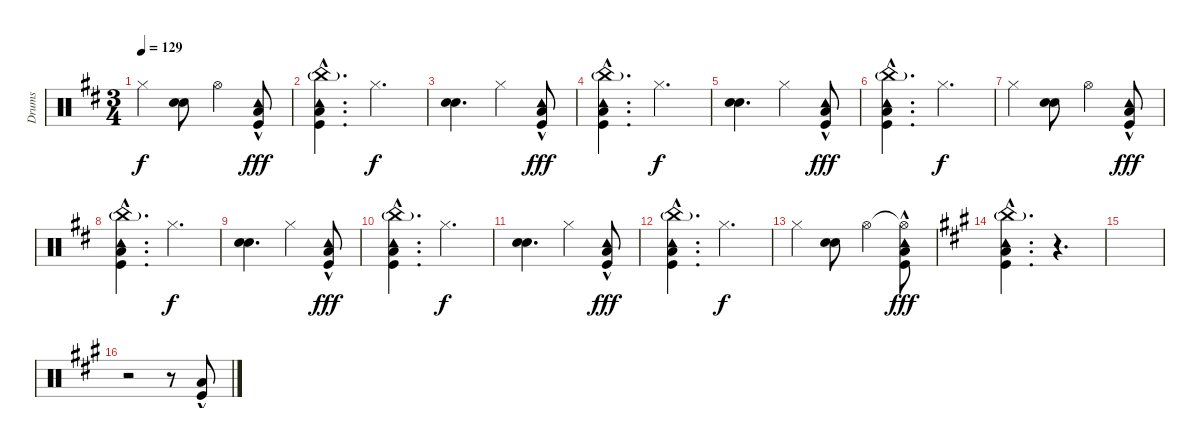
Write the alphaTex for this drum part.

\track ("Drums" "Drums") {instrument percussion}
\staff {score}
\articulation defaults
\ts (3 4)
\tempo 129
\clef neutral
\ks bminor "Hi-Hat (closed)".4{dy f}
("Electric Snare (hit)" "Snare (hit) 2").8 "Hi-Hat (open)".4 ("Kick (hit)"{hac} "Low Floor Tom (hit)"{hac} "Tambourine (hit)"{hac}).8{dy fff} |
("Kick (hit)"{hac} "Low Floor Tom (hit)"{hac} "China (hit)"{g} "Tambourine (hit)"{hac}).4{d} "Hi-Hat (closed)".4{d dy f} |
("Snare (hit) 2" "Electric Snare (hit)").4{d} "Hi-Hat (closed)".4 ("Kick (hit)"{hac} "Low Floor Tom (hit)"{hac} "Tambourine (hit)"{hac}).8{dy fff} |
("Kick (hit)"{hac} "Low Floor Tom (hit)"{hac} "China (hit)"{g} "Tambourine (hit)"{hac}).4{d} "Hi-Hat (closed)".4{d dy f} |
("Snare (hit) 2" "Electric Snare (hit)").4{d} "Hi-Hat (closed)".4 ("Kick (hit)"{hac} "Low Floor Tom (hit)"{hac} "Tambourine (hit)"{hac}).8{dy fff} |
("Kick (hit)"{hac} "Low Floor Tom (hit)"{hac} "China (hit)"{g} "Tambourine (hit)"{hac}).4{d} "Hi-Hat (closed)".4{d dy f} |
"Hi-Hat (closed)".4 ("Electric Snare (hit)" "Snare (hit) 2").8 "Hi-Hat (open)".4 ("Kick (hit)"{hac} "Low Floor Tom (hit)"{hac} "Tambourine (hit)"{hac}).8{dy fff} |
("Kick (hit)"{hac} "Low Floor Tom (hit)"{hac} "China (hit)"{g} "Tambourine (hit)"{hac}).4{d} "Hi-Hat (closed)".4{d dy f} |
("Snare (hit) 2" "Electric Snare (hit)").4{d} "Hi-Hat (closed)".4 ("Kick (hit)"{hac} "Low Floor Tom (hit)"{hac} "Tambourine (hit)"{hac}).8{dy fff} |
("Kick (hit)"{hac} "Low Floor Tom (hit)"{hac} "China (hit)"{g} "Tambourine (hit)"{hac}).4{d} "Hi-Hat (closed)".4{d dy f} |
("Snare (hit) 2" "Electric Snare (hit)").4{d} "Hi-Hat (closed)".4 ("Kick (hit)"{hac} "Low Floor Tom (hit)"{hac} "Tambourine (hit)"{hac}).8{dy fff} |
("Kick (hit)"{hac} "Low Floor Tom (hit)"{hac} "China (hit)"{g} "Tambourine (hit)"{hac}).4{d} "Hi-Hat (closed)".4{d dy f} |
"Hi-Hat (closed)".4 ("Electric Snare (hit)" "Snare (hit) 2").8 "Hi-Hat (open)".4 ("Hi-Hat (open)"{t} "Low Floor Tom (hit)"{hac} "Kick (hit)"{hac} "Tambourine (hit)"{hac}).8{dy fff} |
\ks f#minor
("Kick (hit)"{hac} "Low Floor Tom (hit)"{hac} "China (hit)"{g} "Tambourine (hit)"{hac}).4{d} r.4{d} |
|
r.2 r.8 ("Low Floor Tom (hit)"{hac} "Kick (hit)"{hac}).8
